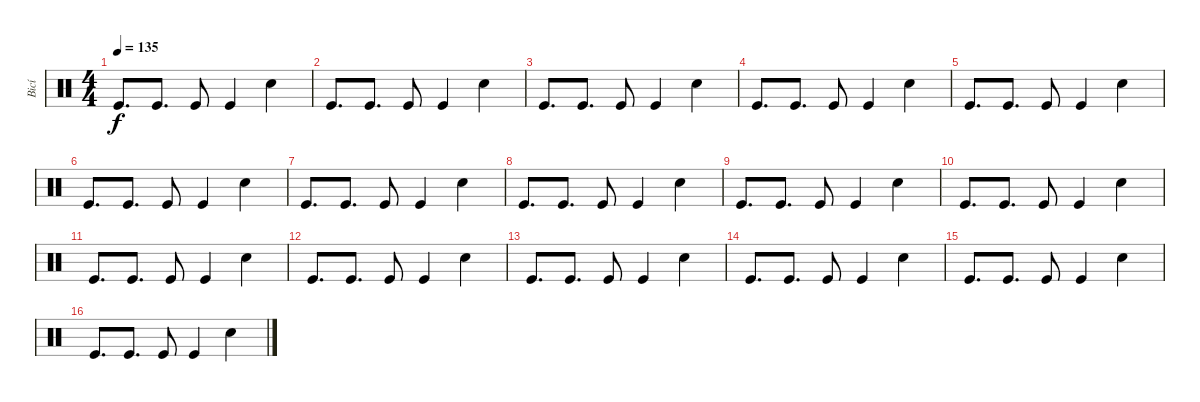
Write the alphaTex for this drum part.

\track ("Bicí" "Bicí") {instrument percussion}
\staff {score}
\articulation defaults
\ts (4 4)
\tempo 135
\clef neutral
\ks c "Kick (hit)".8{d dy f} "Kick (hit)".8{d} "Kick (hit)".8 "Kick (hit)".4 "Electric Snare (hit)".4
|
"Kick (hit)".8{d} "Kick (hit)".8{d} "Kick (hit)".8 "Kick (hit)".4 "Electric Snare (hit)".4 |
"Kick (hit)".8{d} "Kick (hit)".8{d} "Kick (hit)".8 "Kick (hit)".4 "Electric Snare (hit)".4 |
"Kick (hit)".8{d} "Kick (hit)".8{d} "Kick (hit)".8 "Kick (hit)".4 "Electric Snare (hit)".4 |
"Kick (hit)".8{d} "Kick (hit)".8{d} "Kick (hit)".8 "Kick (hit)".4 "Electric Snare (hit)".4 |
"Kick (hit)".8{d} "Kick (hit)".8{d} "Kick (hit)".8 "Kick (hit)".4 "Electric Snare (hit)".4 |
"Kick (hit)".8{d} "Kick (hit)".8{d} "Kick (hit)".8 "Kick (hit)".4 "Electric Snare (hit)".4 |
"Kick (hit)".8{d} "Kick (hit)".8{d} "Kick (hit)".8 "Kick (hit)".4 "Electric Snare (hit)".4 |
"Kick (hit)".8{d} "Kick (hit)".8{d} "Kick (hit)".8 "Kick (hit)".4 "Electric Snare (hit)".4 |
"Kick (hit)".8{d} "Kick (hit)".8{d} "Kick (hit)".8 "Kick (hit)".4 "Electric Snare (hit)".4 |
"Kick (hit)".8{d} "Kick (hit)".8{d} "Kick (hit)".8 "Kick (hit)".4 "Electric Snare (hit)".4 |
"Kick (hit)".8{d} "Kick (hit)".8{d} "Kick (hit)".8 "Kick (hit)".4 "Electric Snare (hit)".4 |
"Kick (hit)".8{d} "Kick (hit)".8{d} "Kick (hit)".8 "Kick (hit)".4 "Electric Snare (hit)".4 |
"Kick (hit)".8{d} "Kick (hit)".8{d} "Kick (hit)".8 "Kick (hit)".4 "Electric Snare (hit)".4 |
"Kick (hit)".8{d} "Kick (hit)".8{d} "Kick (hit)".8 "Kick (hit)".4 "Electric Snare (hit)".4 |
"Kick (hit)".8{d} "Kick (hit)".8{d} "Kick (hit)".8 "Kick (hit)".4 "Electric Snare (hit)".4
